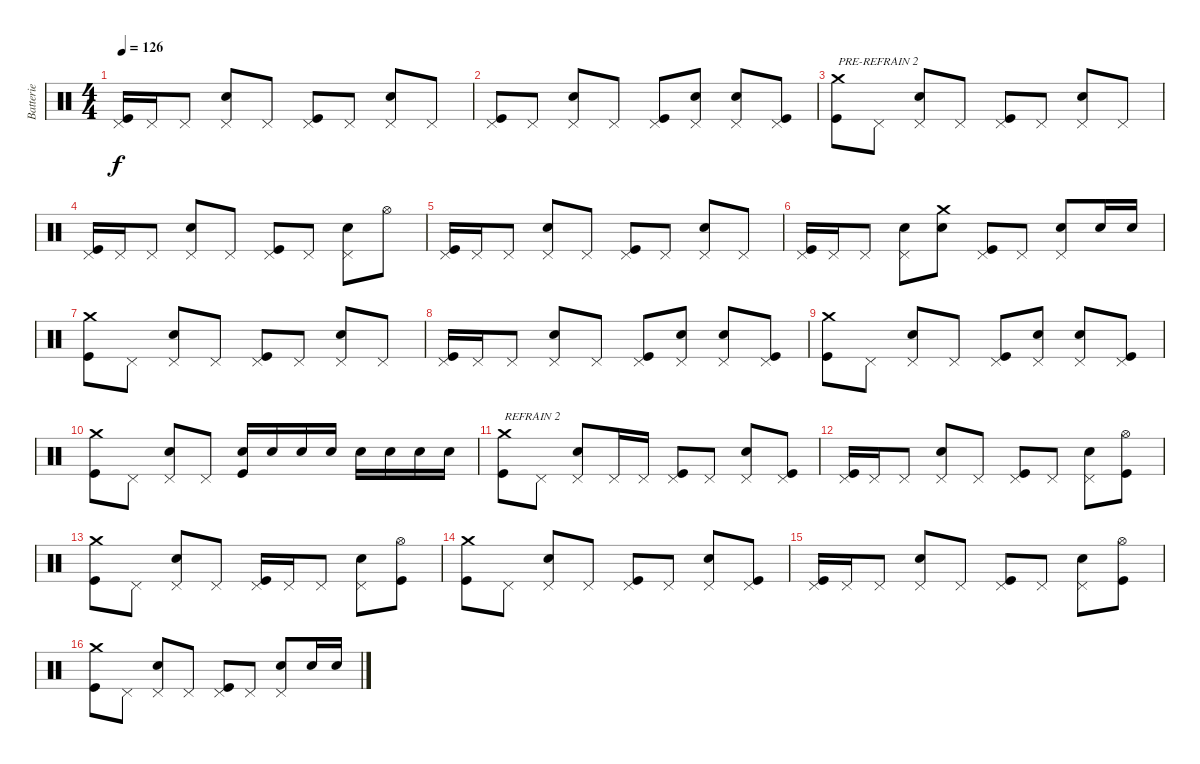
\track ("Batterie" "Batterie") {instrument percussion}
\staff {score}
\articulation defaults
\ts (4 4)
\tempo 126
\clef neutral
\ks c
("Pedal Hi-Hat (hit)" "Kick (hit)").16{dy f} "Pedal Hi-Hat (hit)".16 "Pedal Hi-Hat (hit)".8 ("Pedal Hi-Hat (hit)" "Snare (hit) 2").8 "Pedal Hi-Hat (hit)".8 ("Pedal Hi-Hat (hit)" "Kick (hit)").8 "Pedal Hi-Hat (hit)".8 ("Pedal Hi-Hat (hit)" "Snare (hit) 2").8 "Pedal Hi-Hat (hit)".8 |
("Pedal Hi-Hat (hit)" "Kick (hit)").8 "Pedal Hi-Hat (hit)".8 ("Pedal Hi-Hat (hit)" "Snare (hit) 2").8 "Pedal Hi-Hat (hit)".8 ("Pedal Hi-Hat (hit)" "Kick (hit)").8 ("Pedal Hi-Hat (hit)" "Snare (hit) 2").8 ("Pedal Hi-Hat (hit)" "Snare (hit) 2").8 ("Pedal Hi-Hat (hit)" "Kick (hit)").8 |
("Crash medium (hit)" "Kick (hit)").8{txt "PRE-REFRAIN 2"} "Pedal Hi-Hat (hit)".8 ("Pedal Hi-Hat (hit)" "Snare (hit) 2").8 "Pedal Hi-Hat (hit)".8 ("Pedal Hi-Hat (hit)" "Kick (hit)").8 "Pedal Hi-Hat (hit)".8 ("Pedal Hi-Hat (hit)" "Snare (hit) 2").8 "Pedal Hi-Hat (hit)".8 |
("Pedal Hi-Hat (hit)" "Kick (hit)").16 "Pedal Hi-Hat (hit)".16 "Pedal Hi-Hat (hit)".8 ("Pedal Hi-Hat (hit)" "Snare (hit) 2").8 "Pedal Hi-Hat (hit)".8 ("Pedal Hi-Hat (hit)" "Kick (hit)").8 "Pedal Hi-Hat (hit)".8 ("Pedal Hi-Hat (hit)" "Snare (hit) 2").8 "Hi-Hat (open)".8 |
("Pedal Hi-Hat (hit)" "Kick (hit)").16 "Pedal Hi-Hat (hit)".16 "Pedal Hi-Hat (hit)".8 ("Pedal Hi-Hat (hit)" "Snare (hit) 2").8 "Pedal Hi-Hat (hit)".8 ("Pedal Hi-Hat (hit)" "Kick (hit)").8 "Pedal Hi-Hat (hit)".8 ("Pedal Hi-Hat (hit)" "Snare (hit) 2").8 "Pedal Hi-Hat (hit)".8 |
("Pedal Hi-Hat (hit)" "Kick (hit)").16 "Pedal Hi-Hat (hit)".16 "Pedal Hi-Hat (hit)".8 ("Pedal Hi-Hat (hit)" "Snare (hit) 2").8 ("Crash medium (hit)" "Snare (hit) 2").8 ("Pedal Hi-Hat (hit)" "Kick (hit)").8 "Pedal Hi-Hat (hit)".8 ("Pedal Hi-Hat (hit)" "Snare (hit) 2").8 "Snare (hit) 2".16 "Snare (hit) 2".16 |
("Crash medium (hit)" "Kick (hit)").8 "Pedal Hi-Hat (hit)".8 ("Pedal Hi-Hat (hit)" "Snare (hit) 2").8 "Pedal Hi-Hat (hit)".8 ("Pedal Hi-Hat (hit)" "Kick (hit)").8 "Pedal Hi-Hat (hit)".8 ("Pedal Hi-Hat (hit)" "Snare (hit) 2").8 "Pedal Hi-Hat (hit)".8 |
("Pedal Hi-Hat (hit)" "Kick (hit)").16 "Pedal Hi-Hat (hit)".16 "Pedal Hi-Hat (hit)".8 ("Pedal Hi-Hat (hit)" "Snare (hit) 2").8 "Pedal Hi-Hat (hit)".8 ("Pedal Hi-Hat (hit)" "Kick (hit)").8 ("Pedal Hi-Hat (hit)" "Snare (hit) 2").8 ("Pedal Hi-Hat (hit)" "Snare (hit) 2").8 ("Pedal Hi-Hat (hit)" "Kick (hit)").8 |
("Crash medium (hit)" "Kick (hit)").8 "Pedal Hi-Hat (hit)".8 ("Pedal Hi-Hat (hit)" "Snare (hit) 2").8 "Pedal Hi-Hat (hit)".8 ("Pedal Hi-Hat (hit)" "Kick (hit)").8 ("Pedal Hi-Hat (hit)" "Snare (hit) 2").8 ("Pedal Hi-Hat (hit)" "Snare (hit) 2").8 ("Pedal Hi-Hat (hit)" "Kick (hit)").8 |
("Crash medium (hit)" "Kick (hit)").8 "Pedal Hi-Hat (hit)".8 ("Pedal Hi-Hat (hit)" "Snare (hit) 2").8 "Pedal Hi-Hat (hit)".8 ("Snare (hit) 2" "Kick (hit)").16 "Snare (hit) 2".16 "Snare (hit) 2".16 "Snare (hit) 2".16 "Snare (hit) 2".16 "Snare (hit) 2".16 "Snare (hit) 2".16 "Snare (hit) 2".16 |
("Crash medium (hit)" "Kick (hit)").8{txt "REFRAIN 2"} "Pedal Hi-Hat (hit)".8 ("Pedal Hi-Hat (hit)" "Snare (hit) 2").8 "Pedal Hi-Hat (hit)".16 "Pedal Hi-Hat (hit)".16 ("Pedal Hi-Hat (hit)" "Kick (hit)").8 "Pedal Hi-Hat (hit)".8 ("Pedal Hi-Hat (hit)" "Snare (hit) 2").8 ("Pedal Hi-Hat (hit)" "Kick (hit)").8 |
("Pedal Hi-Hat (hit)" "Kick (hit)").16 "Pedal Hi-Hat (hit)".16 "Pedal Hi-Hat (hit)".8 ("Pedal Hi-Hat (hit)" "Snare (hit) 2").8 "Pedal Hi-Hat (hit)".8 ("Pedal Hi-Hat (hit)" "Kick (hit)").8 "Pedal Hi-Hat (hit)".8 ("Pedal Hi-Hat (hit)" "Snare (hit) 2").8 ("Hi-Hat (open)" "Kick (hit)").8 |
("Crash medium (hit)" "Kick (hit)").8 "Pedal Hi-Hat (hit)".8 ("Pedal Hi-Hat (hit)" "Snare (hit) 2").8 "Pedal Hi-Hat (hit)".8 ("Pedal Hi-Hat (hit)" "Kick (hit)").16 "Pedal Hi-Hat (hit)".16 "Pedal Hi-Hat (hit)".8 ("Pedal Hi-Hat (hit)" "Snare (hit) 2").8 ("Hi-Hat (open)" "Kick (hit)").8 |
("Crash medium (hit)" "Kick (hit)").8 "Pedal Hi-Hat (hit)".8 ("Pedal Hi-Hat (hit)" "Snare (hit) 2").8 "Pedal Hi-Hat (hit)".8 ("Pedal Hi-Hat (hit)" "Kick (hit)").8 "Pedal Hi-Hat (hit)".8 ("Pedal Hi-Hat (hit)" "Snare (hit) 2").8 ("Pedal Hi-Hat (hit)" "Kick (hit)").8 |
("Pedal Hi-Hat (hit)" "Kick (hit)").16 "Pedal Hi-Hat (hit)".16 "Pedal Hi-Hat (hit)".8 ("Pedal Hi-Hat (hit)" "Snare (hit) 2").8 "Pedal Hi-Hat (hit)".8 ("Pedal Hi-Hat (hit)" "Kick (hit)").8 "Pedal Hi-Hat (hit)".8 ("Pedal Hi-Hat (hit)" "Snare (hit) 2").8 ("Hi-Hat (open)" "Kick (hit)").8 |
("Crash medium (hit)" "Kick (hit)").8 "Pedal Hi-Hat (hit)".8 ("Pedal Hi-Hat (hit)" "Snare (hit) 2").8 "Pedal Hi-Hat (hit)".8 ("Pedal Hi-Hat (hit)" "Kick (hit)").8 "Pedal Hi-Hat (hit)".8 ("Pedal Hi-Hat (hit)" "Snare (hit) 2").8 "Snare (hit) 2".16 "Snare (hit) 2".16
